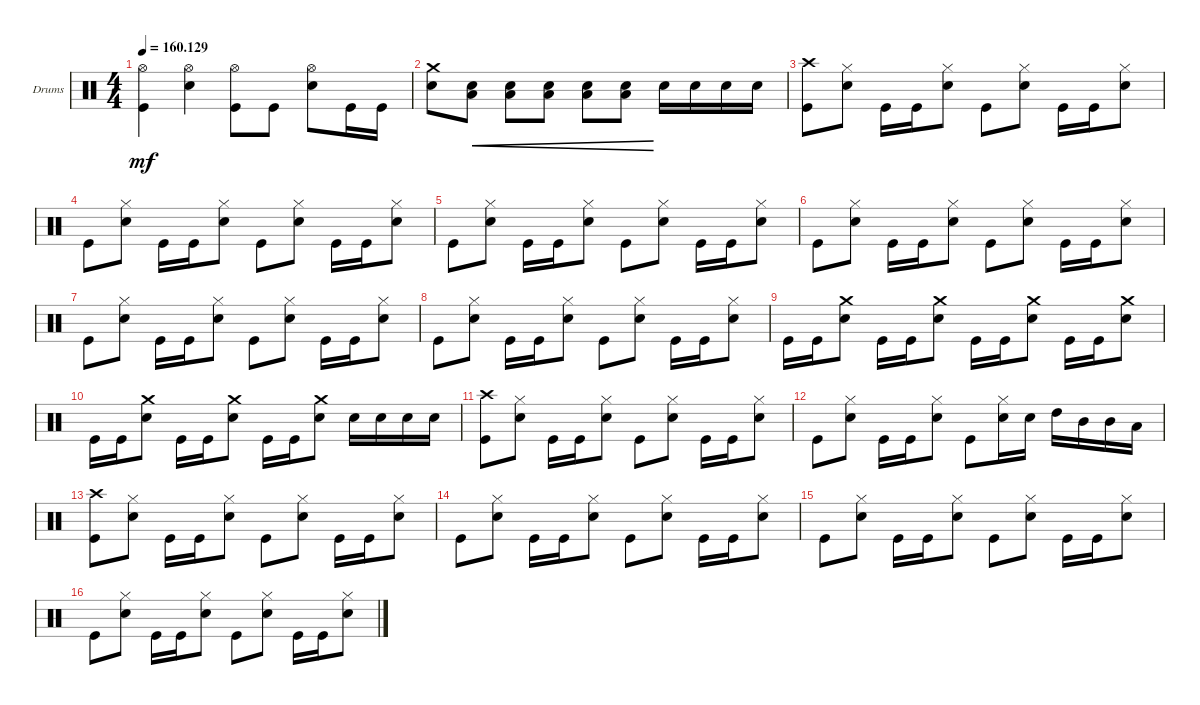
\defaultSystemsLayout 4
\bracketExtendMode groupsimilarinstruments
\firstSystemTrackNameOrientation horizontal
\otherSystemsTrackNameOrientation horizontal
\track ("Drumkit" "Drums") {instrument percussion}
\staff {score}
\articulation defaults
\ts (4 4)
\tempo
160.129
\accidentals auto
\clef neutral
\ottava regular
\simile none
\ks c
("Kick (hit)" "Hi-Hat (open)").4{dy mf} ("Hi-Hat (open)" "Snare (hit) 2").4 ("Hi-Hat (open)" "Kick (hit)").8 "Kick (hit)".8 ("Snare (hit) 2" "Hi-Hat (open)").8 "Kick (hit)".16 "Kick (hit)".16 |
("Snare (hit) 2" "Crash medium (hit)").8 ("Snare (hit) 2" "Low Tom (hit)").8{cre} ("Low Tom (hit)" "Snare (hit) 2").8{cre} ("Low Tom (hit)" "Snare (hit) 2").8{cre} ("Low Tom (hit)" "Snare (hit) 2").8{cre} ("Low Tom (hit)" "Snare (hit) 2").8{cre} "Snare (hit) 2".16 "Snare (hit) 2".16 "Snare (hit) 2".16 "Snare (hit) 2".16 |
("Kick (hit)" "Crash high (hit)").8 ("Snare (hit) 2" "Hi-Hat (closed)").8 "Kick (hit)".16 "Kick (hit)".16 ("Snare (hit) 2" "Hi-Hat (closed)").8 "Kick (hit)".8 ("Snare (hit) 2" "Hi-Hat (closed)").8 "Kick (hit)".16 "Kick (hit)".16 ("Snare (hit) 2" "Hi-Hat (closed)").8 |
"Kick (hit)".8 ("Snare (hit) 2" "Hi-Hat (closed)").8 "Kick (hit)".16 "Kick (hit)".16 ("Snare (hit) 2" "Hi-Hat (closed)").8 "Kick (hit)".8 ("Snare (hit) 2" "Hi-Hat (closed)").8 "Kick (hit)".16 "Kick (hit)".16 ("Snare (hit) 2" "Hi-Hat (closed)").8 |
"Kick (hit)".8 ("Snare (hit) 2" "Hi-Hat (closed)").8 "Kick (hit)".16 "Kick (hit)".16 ("Snare (hit) 2" "Hi-Hat (closed)").8 "Kick (hit)".8 ("Snare (hit) 2" "Hi-Hat (closed)").8 "Kick (hit)".16 "Kick (hit)".16 ("Snare (hit) 2" "Hi-Hat (closed)").8 |
"Kick (hit)".8 ("Snare (hit) 2" "Hi-Hat (closed)").8 "Kick (hit)".16 "Kick (hit)".16 ("Snare (hit) 2" "Hi-Hat (closed)").8 "Kick (hit)".8 ("Snare (hit) 2" "Hi-Hat (closed)").8 "Kick (hit)".16 "Kick (hit)".16 ("Snare (hit) 2" "Hi-Hat (closed)").8 |
"Kick (hit)".8 ("Snare (hit) 2" "Hi-Hat (closed)").8 "Kick (hit)".16 "Kick (hit)".16 ("Snare (hit) 2" "Hi-Hat (closed)").8 "Kick (hit)".8 ("Snare (hit) 2" "Hi-Hat (closed)").8 "Kick (hit)".16 "Kick (hit)".16 ("Snare (hit) 2" "Hi-Hat (closed)").8 |
"Kick (hit)".8 ("Snare (hit) 2" "Hi-Hat (closed)").8 "Kick (hit)".16 "Kick (hit)".16 ("Snare (hit) 2" "Hi-Hat (closed)").8 "Kick (hit)".8 ("Snare (hit) 2" "Hi-Hat (closed)").8 "Kick (hit)".16 "Kick (hit)".16 ("Snare (hit) 2" "Hi-Hat (closed)").8 |
"Kick (hit)".16 "Kick (hit)".16 ("Snare (hit) 2" "Crash medium (hit)").8 "Kick (hit)".16 "Kick (hit)".16 ("Snare (hit) 2" "Crash medium (hit)").8 "Kick (hit)".16 "Kick (hit)".16 ("Snare (hit) 2" "Crash medium (hit)").8 "Kick (hit)".16 "Kick (hit)".16 ("Snare (hit) 2" "Crash medium (hit)").8 |
"Kick (hit)".16 "Kick (hit)".16 ("Snare (hit) 2" "Crash medium (hit)").8 "Kick (hit)".16 "Kick (hit)".16 ("Snare (hit) 2" "Crash medium (hit)").8 "Kick (hit)".16 "Kick (hit)".16 ("Snare (hit) 2" "Crash medium (hit)").8 "Snare (hit) 2".16 "Snare (hit) 2".16 "Snare (hit) 2".16 "Snare (hit) 2".16 |
("Kick (hit)" "Crash high (hit)").8 ("Snare (hit) 2" "Hi-Hat (closed)").8 "Kick (hit)".16 "Kick (hit)".16 ("Snare (hit) 2" "Hi-Hat (closed)").8 "Kick (hit)".8 ("Snare (hit) 2" "Hi-Hat (closed)").8 "Kick (hit)".16 "Kick (hit)".16 ("Snare (hit) 2" "Hi-Hat (closed)").8 |
"Kick (hit)".8 ("Snare (hit) 2" "Hi-Hat (closed)").8 "Kick (hit)".16 "Kick (hit)".16 ("Snare (hit) 2" "Hi-Hat (closed)").8 "Kick (hit)".8 ("Snare (hit) 2" "Hi-Hat (closed)").16 "Snare (hit) 2".16 "High Tom (hit)".16 "Mid Tom (hit)".16 "Mid Tom (hit)".16 "Low Tom (hit)".16 |
("Kick (hit)" "Crash high (hit)").8 ("Snare (hit) 2" "Hi-Hat (closed)").8 "Kick (hit)".16 "Kick (hit)".16 ("Snare (hit) 2" "Hi-Hat (closed)").8 "Kick (hit)".8 ("Snare (hit) 2" "Hi-Hat (closed)").8 "Kick (hit)".16 "Kick (hit)".16 ("Snare (hit) 2" "Hi-Hat (closed)").8 |
"Kick (hit)".8 ("Snare (hit) 2" "Hi-Hat (closed)").8 "Kick (hit)".16 "Kick (hit)".16 ("Snare (hit) 2" "Hi-Hat (closed)").8 "Kick (hit)".8 ("Snare (hit) 2" "Hi-Hat (closed)").8 "Kick (hit)".16 "Kick (hit)".16 ("Snare (hit) 2" "Hi-Hat (closed)").8 |
"Kick (hit)".8 ("Snare (hit) 2" "Hi-Hat (closed)").8 "Kick (hit)".16 "Kick (hit)".16 ("Snare (hit) 2" "Hi-Hat (closed)").8 "Kick (hit)".8 ("Snare (hit) 2" "Hi-Hat (closed)").8 "Kick (hit)".16 "Kick (hit)".16 ("Snare (hit) 2" "Hi-Hat (closed)").8 |
"Kick (hit)".8 ("Snare (hit) 2" "Hi-Hat (closed)").8 "Kick (hit)".16 "Kick (hit)".16 ("Snare (hit) 2" "Hi-Hat (closed)").8 "Kick (hit)".8 ("Snare (hit) 2" "Hi-Hat (closed)").8 "Kick (hit)".16 "Kick (hit)".16 ("Snare (hit) 2" "Hi-Hat (closed)").8
